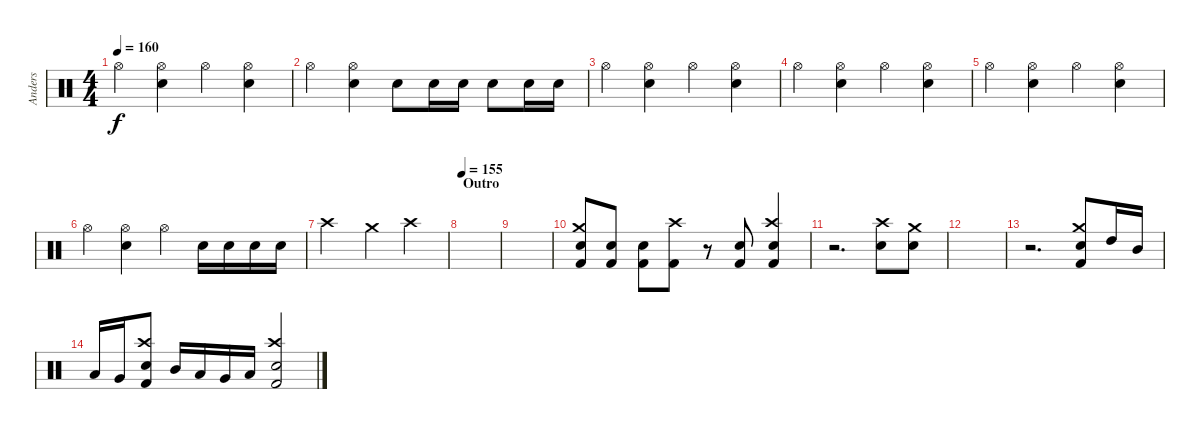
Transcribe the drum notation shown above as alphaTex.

\track ("Anders" "Anders") {instrument percussion}
\staff {score}
\articulation defaults
\ts (4 4)
\tempo 160
\clef neutral
\ks c "Hi-Hat (open)".4{dy f}
("Hi-Hat (open)" "Snare (hit) 2").4 "Hi-Hat (open)".4 ("Hi-Hat (open)" "Snare (hit) 2").4 |
"Hi-Hat (open)".4 ("Hi-Hat (open)" "Snare (hit) 2").4 "Snare (hit) 2".8 "Snare (hit) 2".16 "Snare (hit) 2".16 "Snare (hit) 2".8 "Snare (hit) 2".16 "Snare (hit) 2".16 |
"Hi-Hat (open)".4 ("Hi-Hat (open)" "Snare (hit) 2").4 "Hi-Hat (open)".4 ("Hi-Hat (open)" "Snare (hit) 2").4 |
"Hi-Hat (open)".4 ("Hi-Hat (open)" "Snare (hit) 2").4 "Hi-Hat (open)".4 ("Hi-Hat (open)" "Snare (hit) 2").4 |
"Hi-Hat (open)".4 ("Hi-Hat (open)" "Snare (hit) 2").4 "Hi-Hat (open)".4 ("Hi-Hat (open)" "Snare (hit) 2").4 |
"Hi-Hat (open)".4 ("Hi-Hat (open)" "Snare (hit) 2").4 "Hi-Hat (open)".4 "Snare (hit) 2".16 "Snare (hit) 2".16 "Snare (hit) 2".16 "Snare (hit) 2".16 |
"Crash high (hit)".2 "Crash medium (hit)".4 "Crash high (hit)".4 |
\section ("" "Outro")
\tempo 155
|
|
("Crash medium (hit)" "Snare (hit) 2" "Kick (hit) 2").8 ("Snare (hit) 2" "Kick (hit) 2").8 ("Snare (hit) 2" "Kick (hit) 2").8 ("Crash high (hit)" "Kick (hit) 2").8 r.8 ("Snare (hit) 2" "Kick (hit) 2").8 ("Crash high (hit)" "Snare (hit) 2" "Kick (hit) 2").4 |
r.2{d} ("Crash high (hit)" "Snare (hit) 2").8 ("Crash medium (hit)" "Snare (hit) 2").8 |
|
r.2{d} ("Crash medium (hit)" "Snare (hit) 2" "Kick (hit) 2").8 "High Tom (hit)".16 "Mid Tom (hit)".16 |
"Low Tom (hit)".16 "Very Low Tom (hit)".16 ("Crash high (hit)" "Snare (hit) 2" "Kick (hit) 2").8 "Mid Tom (hit)".16 "Low Tom (hit)".16 "Very Low Tom (hit)".16 "Low Floor Tom (hit)".16 ("Crash high (hit)" "Snare (hit) 2" "Kick (hit) 2").2
